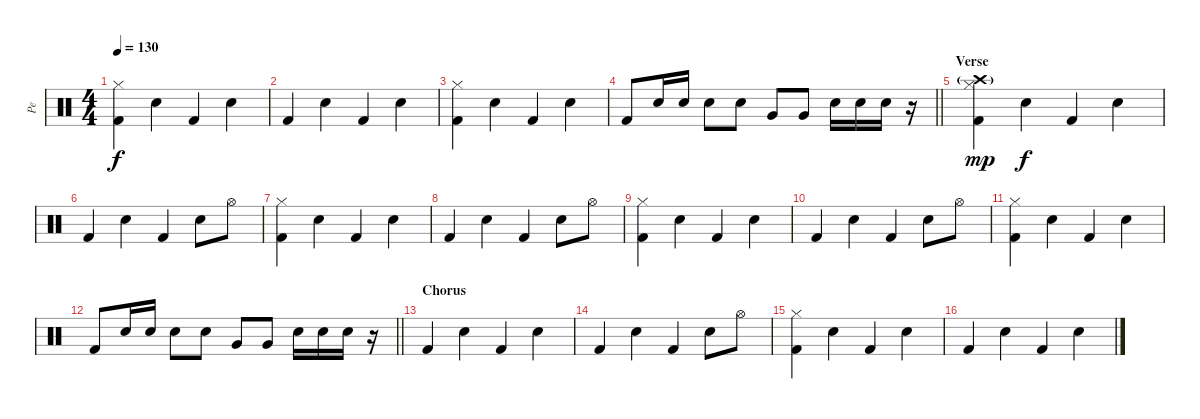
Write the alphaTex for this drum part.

\track ("Pe" "Pe") {instrument percussion}
\staff {score}
\articulation defaults
\ts (4 4)
\tempo 130
\clef neutral
\ks c
("Hi-Hat (closed)" "Kick (hit) 2").4{dy f} "Electric Snare (hit)".4 "Kick (hit) 2".4 "Electric Snare (hit)".4 |
"Kick (hit) 2".4 "Electric Snare (hit)".4 "Kick (hit) 2".4 "Electric Snare (hit)".4 |
("Hi-Hat (closed)" "Kick (hit) 2").4 "Electric Snare (hit)".4 "Kick (hit) 2".4 "Electric Snare (hit)".4 |
\barLineRight lightlight "Kick (hit) 2".8 "Electric Snare (hit)".16 "Electric Snare (hit)".16 "Electric Snare (hit)".8 "Electric Snare (hit)".8 "Very Low Tom (hit)".8 "Very Low Tom (hit)".8 "Electric Snare (hit)".16 "Electric Snare (hit)".16 "Electric Snare (hit)".16
r.16 |
\section ("" "Verse")
("Crash high (hit)"{g} "Hi-Hat (closed)" "Kick (hit) 2").4{dy mp} "Electric Snare (hit)".4{dy f} "Kick (hit) 2".4 "Electric Snare (hit)".4 |
"Kick (hit) 2".4 "Electric Snare (hit)".4 "Kick (hit) 2".4 "Electric Snare (hit)".8 "Hi-Hat (open)".8 |
("Hi-Hat (closed)" "Kick (hit) 2").4 "Electric Snare (hit)".4 "Kick (hit) 2".4 "Electric Snare (hit)".4 |
"Kick (hit) 2".4 "Electric Snare (hit)".4 "Kick (hit) 2".4 "Electric Snare (hit)".8 "Hi-Hat (open)".8 |
("Hi-Hat (closed)" "Kick (hit) 2").4 "Electric Snare (hit)".4 "Kick (hit) 2".4 "Electric Snare (hit)".4 |
"Kick (hit) 2".4 "Electric Snare (hit)".4 "Kick (hit) 2".4 "Electric Snare (hit)".8 "Hi-Hat (open)".8 |
("Hi-Hat (closed)" "Kick (hit) 2").4 "Electric Snare (hit)".4 "Kick (hit) 2".4 "Electric Snare (hit)".4 |
\barLineRight lightlight "Kick (hit) 2".8 "Electric Snare (hit)".16 "Electric Snare (hit)".16 "Electric Snare (hit)".8 "Electric Snare (hit)".8 "Very Low Tom (hit)".8 "Very Low Tom (hit)".8 "Electric Snare (hit)".16 "Electric Snare (hit)".16 "Electric Snare (hit)".16
r.16 |
\section ("" "Chorus")
"Kick (hit) 2".4 "Electric Snare (hit)".4 "Kick (hit) 2".4 "Electric Snare (hit)".4 |
"Kick (hit) 2".4 "Electric Snare (hit)".4 "Kick (hit) 2".4 "Electric Snare (hit)".8 "Hi-Hat (open)".8 |
("Hi-Hat (closed)" "Kick (hit) 2").4 "Electric Snare (hit)".4 "Kick (hit) 2".4 "Electric Snare (hit)".4 |
"Kick (hit) 2".4 "Electric Snare (hit)".4 "Kick (hit) 2".4 "Electric Snare (hit)".4
